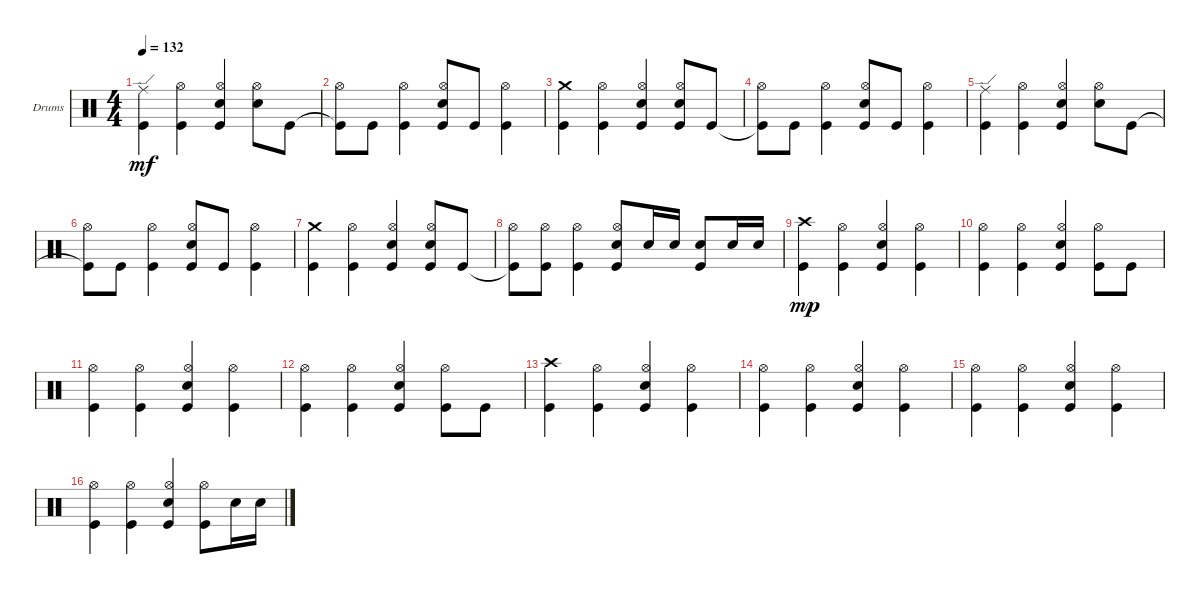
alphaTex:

\defaultSystemsLayout 4
\bracketExtendMode groupsimilarinstruments
\firstSystemTrackNameOrientation horizontal
\otherSystemsTrackNameOrientation horizontal
\track ("Steve Judd" "Drums") {instrument percussion}
\staff {score}
\articulation defaults
\ts (4 4)
\tempo 132
\clef neutral
\scale
0.333333
\ks c
("Kick (hit)" "Ride (edge)").4{dy mf} ("Kick (hit)" "Hi-Hat (open)").4 ("Kick (hit)" "Hi-Hat (open)" "Snare (hit) 2").4 ("Hi-Hat (open)" "Snare (hit) 2").8 "Kick (hit)".8 |
\scale
0.333333 ("Kick (hit)"{t} "Hi-Hat (open)").8 "Kick (hit)".8 ("Kick (hit)" "Hi-Hat (open)").4 ("Kick (hit)" "Hi-Hat (open)" "Snare (hit) 2").8 "Kick (hit)".8 ("Kick (hit)" "Hi-Hat (open)").4 |
\scale
0.333333 ("Kick (hit)" "Crash medium (hit)").4 ("Kick (hit)" "Hi-Hat (open)").4 ("Kick (hit)" "Snare (hit) 2" "Hi-Hat (open)").4 ("Kick (hit)" "Hi-Hat (open)" "Snare (hit) 2").8 "Kick (hit)".8 |
\scale
0.333333 ("Kick (hit)"{t} "Hi-Hat (open)").8 "Kick (hit)".8 ("Kick (hit)" "Hi-Hat (open)").4 ("Kick (hit)" "Hi-Hat (open)" "Snare (hit) 2").8 "Kick (hit)".8 ("Kick (hit)" "Hi-Hat (open)").4 |
\scale
0.333333 ("Kick (hit)" "Ride (edge)").4 ("Kick (hit)" "Hi-Hat (open)").4 ("Kick (hit)" "Hi-Hat (open)" "Snare (hit) 2").4 ("Hi-Hat (open)" "Snare (hit) 2").8 "Kick (hit)".8 |
\scale
0.333333 ("Kick (hit)"{t} "Hi-Hat (open)").8 "Kick (hit)".8 ("Kick (hit)" "Hi-Hat (open)").4 ("Kick (hit)" "Hi-Hat (open)" "Snare (hit) 2").8 "Kick (hit)".8 ("Kick (hit)" "Hi-Hat (open)").4 |
\scale
0.333333 ("Kick (hit)" "Crash medium (hit)").4 ("Kick (hit)" "Hi-Hat (open)").4 ("Kick (hit)" "Snare (hit) 2" "Hi-Hat (open)").4 ("Kick (hit)" "Hi-Hat (open)" "Snare (hit) 2").8 "Kick (hit)".8 |
\scale
0.333333 ("Kick (hit)"{t} "Hi-Hat (open)").8 ("Kick (hit)" "Hi-Hat (open)").8 ("Kick (hit)" "Hi-Hat (open)").4 ("Snare (hit) 2" "Kick (hit)" "Hi-Hat (open)").8 "Snare (hit) 2".16 "Snare (hit) 2".16 ("Kick (hit)" "Snare (hit) 2").8 "Snare (hit) 2".16 "Snare (hit) 2".16 |
\scale
0.333333 ("Kick (hit)" "Crash high (hit)").4{dy mp} ("Kick (hit)" "Hi-Hat (open)").4 ("Kick (hit)" "Hi-Hat (open)" "Snare (hit) 2").4 ("Kick (hit)" "Hi-Hat (open)").4 |
\scale
0.333333 ("Kick (hit)" "Hi-Hat (open)").4 ("Kick (hit)" "Hi-Hat (open)").4 ("Kick (hit)" "Hi-Hat (open)" "Snare (hit) 2").4 ("Kick (hit)" "Hi-Hat (open)").8 "Kick (hit)".8 |
\scale
0.333333 ("Kick (hit)" "Hi-Hat (open)").4 ("Kick (hit)" "Hi-Hat (open)").4 ("Kick (hit)" "Hi-Hat (open)" "Snare (hit) 2").4 ("Kick (hit)" "Hi-Hat (open)").4 |
\scale
0.333333 ("Kick (hit)" "Hi-Hat (open)").4 ("Kick (hit)" "Hi-Hat (open)").4 ("Kick (hit)" "Hi-Hat (open)" "Snare (hit) 2").4 ("Kick (hit)" "Hi-Hat (open)").8 "Kick (hit)".8 |
\scale
0.333333 ("Kick (hit)" "Crash high (hit)").4 ("Kick (hit)" "Hi-Hat (open)").4 ("Kick (hit)" "Hi-Hat (open)" "Snare (hit) 2").4 ("Kick (hit)" "Hi-Hat (open)").4 |
\scale
0.333333 ("Kick (hit)" "Hi-Hat (open)").4 ("Kick (hit)" "Hi-Hat (open)").4 ("Kick (hit)" "Hi-Hat (open)" "Snare (hit) 2").4 ("Kick (hit)" "Hi-Hat (open)").4 |
\scale
0.333333 ("Kick (hit)" "Hi-Hat (open)").4 ("Kick (hit)" "Hi-Hat (open)").4 ("Kick (hit)" "Hi-Hat (open)" "Snare (hit) 2").4 ("Kick (hit)" "Hi-Hat (open)").4 |
\scale
0.333333 ("Kick (hit)" "Hi-Hat (open)").4 ("Kick (hit)" "Hi-Hat (open)").4 ("Kick (hit)" "Hi-Hat (open)" "Snare (hit) 2").4 ("Kick (hit)" "Hi-Hat (open)").8 "Snare (hit) 2".16 "Snare (hit) 2".16
